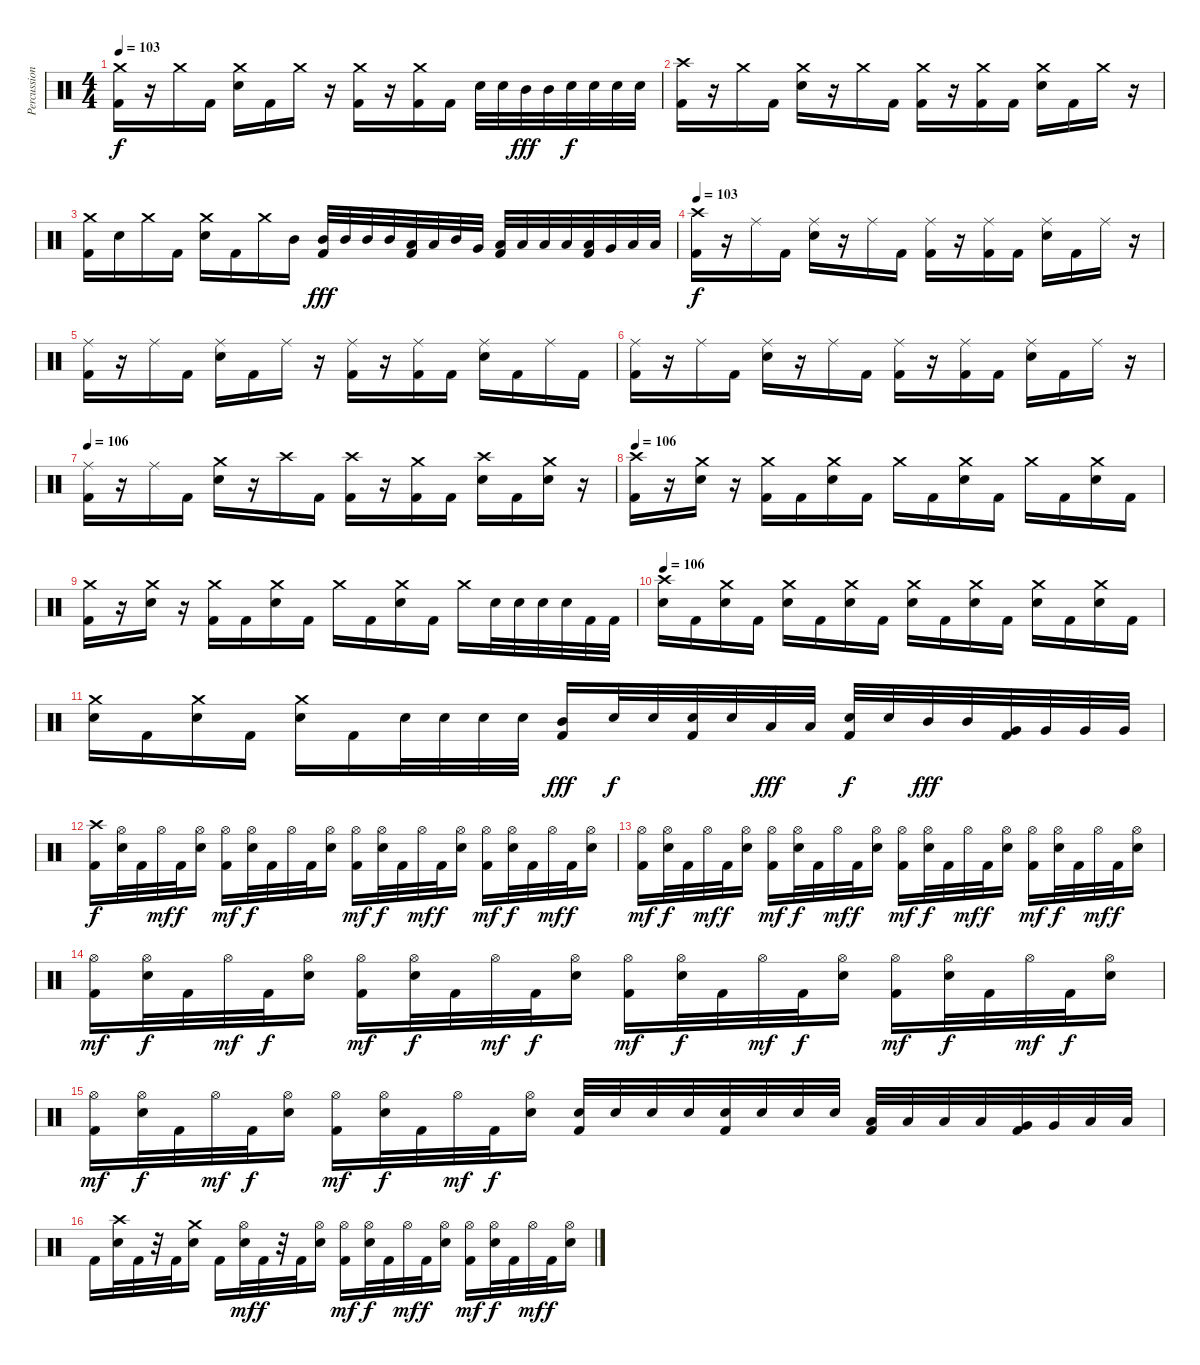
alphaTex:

\track ("Percussion" "Percussion") {instrument percussion}
\staff {score}
\articulation defaults
\ts (4 4)
\tempo 103
\clef neutral
\ks c
("Crash medium (hit)" "Kick (hit) 2").16{dy f} r.16 "Crash medium (hit)".16 "Kick (hit) 2".16 ("Crash medium (hit)" "Electric Snare (hit)").16 "Kick (hit) 2".16 "Crash medium (hit)".16 r.16 ("Crash medium (hit)" "Kick (hit) 2").16 r.16 ("Crash medium (hit)" "Kick (hit) 2").16 "Kick (hit) 2".16 "Electric Snare (hit)".32 "Electric Snare (hit)".32 "Mid Tom (hit)".32{dy fff} "Mid Tom (hit)".32 "Electric Snare (hit)".32{dy f} "Electric Snare (hit)".32 "Electric Snare (hit)".32 "Electric Snare (hit)".32 |
("Crash high (hit)" "Kick (hit) 2").16 r.16 "Crash medium (hit)".16 "Kick (hit) 2".16 ("Crash medium (hit)" "Electric Snare (hit)").16 r.16 "Crash medium (hit)".16 "Kick (hit) 2".16 ("Crash medium (hit)" "Kick (hit) 2").16 r.16 ("Crash medium (hit)" "Kick (hit) 2").16 "Kick (hit) 2".16 ("Crash medium (hit)" "Electric Snare (hit)").16 "Kick (hit) 2".16 "Crash medium (hit)".16 r.16 |
("Crash medium (hit)" "Kick (hit) 2").16 "Electric Snare (hit)".16 "Crash medium (hit)".16 "Kick (hit) 2".16 ("Crash medium (hit)" "Electric Snare (hit)").16 "Kick (hit) 2".16 "Crash medium (hit)".16 "Mid Tom (hit)".16 ("Mid Tom (hit)" "Kick (hit) 2").32{dy fff} "Mid Tom (hit)".32 "Mid Tom (hit)".32 "Mid Tom (hit)".32 ("Low Tom (hit)" "Kick (hit) 2").32 "Low Tom (hit)".32 "Mid Tom (hit)".32 "Very Low Tom (hit)".32 ("Low Tom (hit)" "Kick (hit) 2").32 "Low Tom (hit)".32 "Low Tom (hit)".32 "Low Tom (hit)".32 ("Low Tom (hit)" "Kick (hit) 2").32 "Very Low Tom (hit)".32 "Low Floor Tom (hit)".32 "Low Floor Tom (hit)".32 |
\tempo 103
("Crash high (hit)" "Kick (hit) 2").16{dy f} r.16 "Ride (middle)".16 "Kick (hit) 2".16 ("Ride (middle)" "Electric Snare (hit)").16 r.16 "Ride (middle)".16 "Kick (hit) 2".16 ("Ride (middle)" "Kick (hit) 2").16 r.16 ("Ride (middle)" "Kick (hit) 2").16 "Kick (hit) 2".16 ("Ride (middle)" "Electric Snare (hit)").16 "Kick (hit) 2".16 "Ride (middle)".16 r.16 |
("Ride (middle)" "Kick (hit) 2").16 r.16 "Ride (middle)".16 "Kick (hit) 2".16 ("Ride (middle)" "Electric Snare (hit)").16 "Kick (hit) 2".16 "Ride (middle)".16 r.16 ("Ride (middle)" "Kick (hit) 2").16 r.16 ("Ride (middle)" "Kick (hit) 2").16 "Kick (hit) 2".16 ("Ride (middle)" "Electric Snare (hit)").16 "Kick (hit) 2".16 "Ride (middle)".16 "Kick (hit) 2".16 |
("Ride (middle)" "Kick (hit) 2").16 r.16 "Ride (middle)".16 "Kick (hit) 2".16 ("Ride (middle)" "Electric Snare (hit)").16 r.16 "Ride (middle)".16 "Kick (hit) 2".16 ("Ride (middle)" "Kick (hit) 2").16 r.16 ("Ride (middle)" "Kick (hit) 2").16 "Kick (hit) 2".16 ("Ride (middle)" "Electric Snare (hit)").16 "Kick (hit) 2".16 "Ride (middle)".16 r.16 |
\tempo 106
("Ride (middle)" "Kick (hit) 2").16 r.16 "Ride (middle)".16 "Kick (hit) 2".16 ("Crash medium (hit)" "Electric Snare (hit)").16 r.16 "Crash high (hit)".16 "Kick (hit) 2".16 ("Crash high (hit)" "Kick (hit) 2").16 r.16 ("Crash medium (hit)" "Kick (hit) 2").16 "Kick (hit) 2".16 ("Crash high (hit)" "Electric Snare (hit)").16 "Kick (hit) 2".16 ("Crash medium (hit)" "Electric Snare (hit)").16 r.16 |
\tempo 106
("Crash high (hit)" "Kick (hit) 2").16 r.16 ("Crash medium (hit)" "Electric Snare (hit)").16 r.16 ("Crash medium (hit)" "Kick (hit) 2").16 "Kick (hit) 2".16 ("Crash medium (hit)" "Electric Snare (hit)").16 "Kick (hit) 2".16 "Crash medium (hit)".16 "Kick (hit) 2".16 ("Crash medium (hit)" "Electric Snare (hit)").16 "Kick (hit) 2".16 "Crash medium (hit)".16 "Kick (hit) 2".16 ("Crash medium (hit)" "Electric Snare (hit)").16 "Kick (hit) 2".16 |
("Crash medium (hit)" "Kick (hit) 2").16 r.16 ("Crash medium (hit)" "Electric Snare (hit)").16 r.16 ("Crash medium (hit)" "Kick (hit) 2").16 "Kick (hit) 2".16 ("Crash medium (hit)" "Electric Snare (hit)").16 "Kick (hit) 2".16 "Crash medium (hit)".16 "Kick (hit) 2".16 ("Crash medium (hit)" "Electric Snare (hit)").16 "Kick (hit) 2".16 "Crash medium (hit)".16 "Electric Snare (hit)".32 "Electric Snare (hit)".32 "Electric Snare (hit)".32 "Electric Snare (hit)".32 "Kick (hit) 2".32 "Kick (hit) 2".32 |
\tempo 106
("Crash high (hit)" "Electric Snare (hit)").16 "Kick (hit) 2".16 ("Crash medium (hit)" "Electric Snare (hit)").16 "Kick (hit) 2".16 ("Crash medium (hit)" "Electric Snare (hit)").16 "Kick (hit) 2".16 ("Crash medium (hit)" "Electric Snare (hit)").16 "Kick (hit) 2".16 ("Crash medium (hit)" "Electric Snare (hit)").16 "Kick (hit) 2".16 ("Crash medium (hit)" "Electric Snare (hit)").16 "Kick (hit) 2".16 ("Crash medium (hit)" "Electric Snare (hit)").16 "Kick (hit) 2".16 ("Crash medium (hit)" "Electric Snare (hit)").16 "Kick (hit) 2".16 |
("Crash medium (hit)" "Electric Snare (hit)").16 "Kick (hit) 2".16 ("Crash medium (hit)" "Electric Snare (hit)").16 "Kick (hit) 2".16 ("Crash medium (hit)" "Electric Snare (hit)").16 "Kick (hit) 2".16 "Electric Snare (hit)".32 "Electric Snare (hit)".32 "Electric Snare (hit)".32 "Electric Snare (hit)".32 ("Mid Tom (hit)" "Kick (hit) 2").16{dy fff} "Electric Snare (hit)".32{dy f} "Electric Snare (hit)".32 ("Electric Snare (hit)" "Kick (hit) 2").32 "Electric Snare (hit)".32 "Low Tom (hit)".32{dy fff} "Low Tom (hit)".32 ("Electric Snare (hit)" "Kick (hit) 2").32{dy f} "Electric Snare (hit)".32 "Mid Tom (hit)".32{dy fff} "Mid Tom (hit)".32 ("Very Low Tom (hit)" "Kick (hit) 2").32 "Very Low Tom (hit)".32 "Very Low Tom (hit)".32 "Very Low Tom (hit)".32 |
("Crash high (hit)" "Kick (hit) 2").16{dy f} ("Hi-Hat (open)" "Electric Snare (hit)").32 "Kick (hit) 2".32 "Hi-Hat (open)".32{dy mf} "Kick (hit) 2".32{dy f} ("Hi-Hat (open)" "Electric Snare (hit)").16 ("Hi-Hat (open)" "Kick (hit) 2").16{dy mf} ("Hi-Hat (open)" "Electric Snare (hit)").32{dy f} "Kick (hit) 2".32 "Hi-Hat (open)".32 "Kick (hit) 2".32 ("Hi-Hat (open)" "Electric Snare (hit)").16 ("Hi-Hat (open)" "Kick (hit) 2").16{dy mf} ("Hi-Hat (open)" "Electric Snare (hit)").32{dy f} "Kick (hit) 2".32 "Hi-Hat (open)".32{dy mf} "Kick (hit) 2".32{dy f} ("Hi-Hat (open)" "Electric Snare (hit)").16 ("Hi-Hat (open)" "Kick (hit) 2").16{dy mf} ("Hi-Hat (open)" "Electric Snare (hit)").32{dy f} "Kick (hit) 2".32 "Hi-Hat (open)".32{dy mf} "Kick (hit) 2".32{dy f} ("Hi-Hat (open)" "Electric Snare (hit)").16 |
("Hi-Hat (open)" "Kick (hit) 2").16{dy mf} ("Hi-Hat (open)" "Electric Snare (hit)").32{dy f} "Kick (hit) 2".32 "Hi-Hat (open)".32{dy mf} "Kick (hit) 2".32{dy f} ("Hi-Hat (open)" "Electric Snare (hit)").16 ("Hi-Hat (open)" "Kick (hit) 2").16{dy mf} ("Hi-Hat (open)" "Electric Snare (hit)").32{dy f} "Kick (hit) 2".32 "Hi-Hat (open)".32{dy mf} "Kick (hit) 2".32{dy f} ("Hi-Hat (open)" "Electric Snare (hit)").16 ("Hi-Hat (open)" "Kick (hit) 2").16{dy mf} ("Hi-Hat (open)" "Electric Snare (hit)").32{dy f} "Kick (hit) 2".32 "Hi-Hat (open)".32{dy mf} "Kick (hit) 2".32{dy f} ("Hi-Hat (open)" "Electric Snare (hit)").16 ("Hi-Hat (open)" "Kick (hit) 2").16{dy mf} ("Hi-Hat (open)" "Electric Snare (hit)").32{dy f} "Kick (hit) 2".32 "Hi-Hat (open)".32{dy mf} "Kick (hit) 2".32{dy f} ("Hi-Hat (open)" "Electric Snare (hit)").16 |
("Hi-Hat (open)" "Kick (hit) 2").16{dy mf} ("Hi-Hat (open)" "Electric Snare (hit)").32{dy f} "Kick (hit) 2".32 "Hi-Hat (open)".32{dy mf} "Kick (hit) 2".32{dy f} ("Hi-Hat (open)" "Electric Snare (hit)").16 ("Hi-Hat (open)" "Kick (hit) 2").16{dy mf} ("Hi-Hat (open)" "Electric Snare (hit)").32{dy f} "Kick (hit) 2".32 "Hi-Hat (open)".32{dy mf} "Kick (hit) 2".32{dy f} ("Hi-Hat (open)" "Electric Snare (hit)").16 ("Hi-Hat (open)" "Kick (hit) 2").16{dy mf} ("Hi-Hat (open)" "Electric Snare (hit)").32{dy f} "Kick (hit) 2".32 "Hi-Hat (open)".32{dy mf} "Kick (hit) 2".32{dy f} ("Hi-Hat (open)" "Electric Snare (hit)").16 ("Hi-Hat (open)" "Kick (hit) 2").16{dy mf} ("Hi-Hat (open)" "Electric Snare (hit)").32{dy f} "Kick (hit) 2".32 "Hi-Hat (open)".32{dy mf} "Kick (hit) 2".32{dy f} ("Hi-Hat (open)" "Electric Snare (hit)").16 |
("Hi-Hat (open)" "Kick (hit) 2").16{dy mf} ("Hi-Hat (open)" "Electric Snare (hit)").32{dy f} "Kick (hit) 2".32 "Hi-Hat (open)".32{dy mf} "Kick (hit) 2".32{dy f} ("Hi-Hat (open)" "Electric Snare (hit)").16 ("Hi-Hat (open)" "Kick (hit) 2").16{dy mf} ("Hi-Hat (open)" "Electric Snare (hit)").32{dy f} "Kick (hit) 2".32 "Hi-Hat (open)".32{dy mf} "Kick (hit) 2".32{dy f} ("Hi-Hat (open)" "Electric Snare (hit)").16 ("Electric Snare (hit)" "Kick (hit) 2").32 "Electric Snare (hit)".32 "Electric Snare (hit)".32 "Electric Snare (hit)".32 ("Electric Snare (hit)" "Kick (hit) 2").32 "Electric Snare (hit)".32 "Electric Snare (hit)".32 "Electric Snare (hit)".32 ("Low Tom (hit)" "Kick (hit) 2").32 "Low Tom (hit)".32 "Low Tom (hit)".32 "Low Tom (hit)".32 ("Very Low Tom (hit)" "Kick (hit) 2").32 "Very Low Tom (hit)".32 "Low Floor Tom (hit)".32 "Low Floor Tom (hit)".32 |
"Kick (hit) 2".16 ("Crash high (hit)" "Electric Snare (hit)").32 "Kick (hit) 2".32 r.32 "Kick (hit) 2".32 ("Crash medium (hit)" "Electric Snare (hit)").16 "Kick (hit) 2".16 ("Hi-Hat (open)" "Electric Snare (hit)").32{dy mf} "Kick (hit) 2".32{dy f} r.32 "Kick (hit) 2".32 ("Hi-Hat (open)" "Electric Snare (hit)").16 ("Hi-Hat (open)" "Kick (hit) 2").16{dy mf} ("Hi-Hat (open)" "Electric Snare (hit)").32{dy f} "Kick (hit) 2".32 "Hi-Hat (open)".32{dy mf} "Kick (hit) 2".32{dy f} ("Hi-Hat (open)" "Electric Snare (hit)").16 ("Hi-Hat (open)" "Kick (hit) 2").16{dy mf} ("Hi-Hat (open)" "Electric Snare (hit)").32{dy f} "Kick (hit) 2".32 "Hi-Hat (open)".32{dy mf} "Kick (hit) 2".32{dy f} ("Hi-Hat (open)" "Electric Snare (hit)").16
